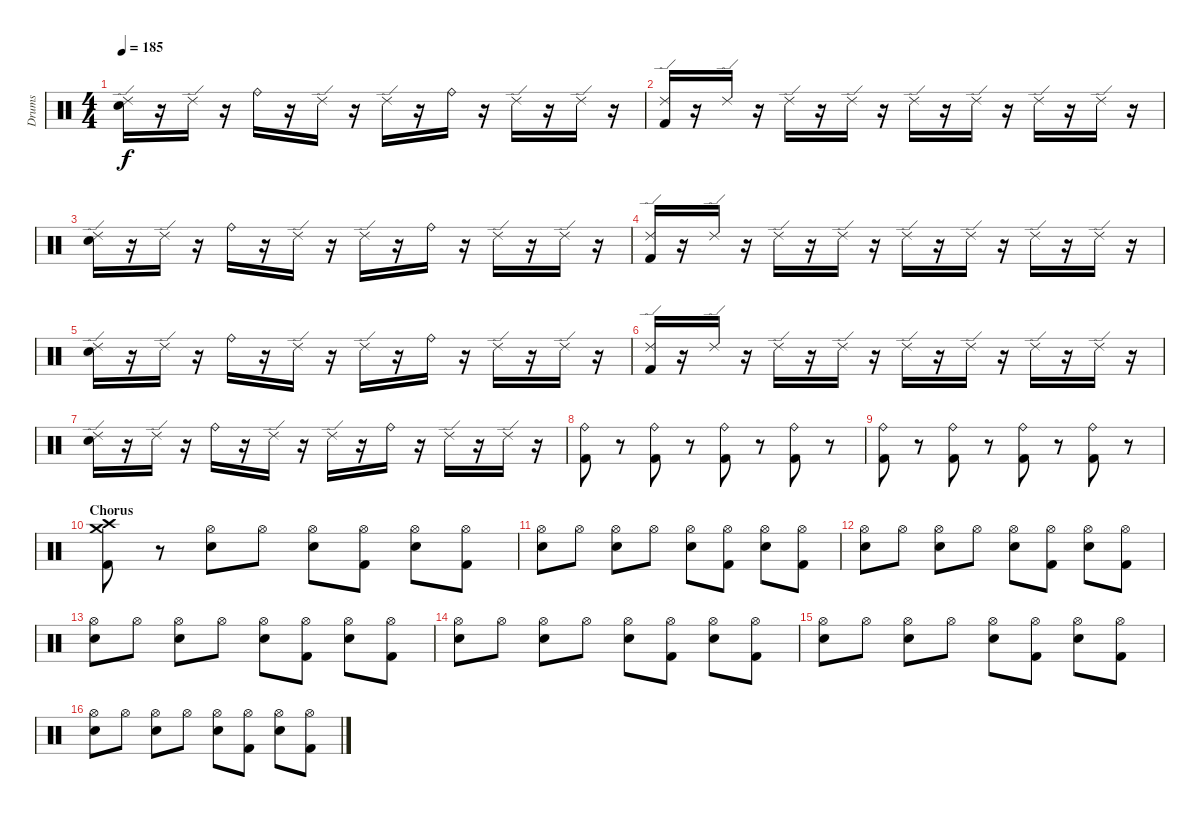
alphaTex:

\track ("Drums" "Drums") {instrument percussion}
\staff {score}
\articulation defaults
\ts (4 4)
\tempo 185
\clef neutral
\ks c
("Ride (edge) 2" "Electric Snare (hit)").16{dy f} r.16 "Ride (edge) 2".16 r.16 "Ride (bell)".16 r.16 "Ride (edge) 2".16 r.16 "Ride (edge) 2".16 r.16 "Ride (bell)".16 r.16 "Ride (edge) 2".16 r.16 "Ride (edge) 2".16 r.16 |
("Ride (edge) 2" "Kick (hit) 2").16 r.16 "Ride (edge) 2".16 r.16 "Ride (edge) 2".16 r.16 "Ride (edge) 2".16 r.16 "Ride (edge) 2".16 r.16 "Ride (edge) 2".16 r.16 "Ride (edge) 2".16 r.16 "Ride (edge) 2".16 r.16 |
("Ride (edge) 2" "Electric Snare (hit)").16 r.16 "Ride (edge) 2".16 r.16 "Ride (bell)".16 r.16 "Ride (edge) 2".16 r.16 "Ride (edge) 2".16 r.16 "Ride (bell)".16 r.16 "Ride (edge) 2".16 r.16 "Ride (edge) 2".16 r.16 |
("Ride (edge) 2" "Kick (hit) 2").16 r.16 "Ride (edge) 2".16 r.16 "Ride (edge) 2".16 r.16 "Ride (edge) 2".16 r.16 "Ride (edge) 2".16 r.16 "Ride (edge) 2".16 r.16 "Ride (edge) 2".16 r.16 "Ride (edge) 2".16 r.16 |
("Ride (edge) 2" "Electric Snare (hit)").16 r.16 "Ride (edge) 2".16 r.16 "Ride (bell)".16 r.16 "Ride (edge) 2".16 r.16 "Ride (edge) 2".16 r.16 "Ride (bell)".16 r.16 "Ride (edge) 2".16 r.16 "Ride (edge) 2".16 r.16 |
("Ride (edge) 2" "Kick (hit) 2").16 r.16 "Ride (edge) 2".16 r.16 "Ride (edge) 2".16 r.16 "Ride (edge) 2".16 r.16 "Ride (edge) 2".16 r.16 "Ride (edge) 2".16 r.16 "Ride (edge) 2".16 r.16 "Ride (edge) 2".16 r.16 |
("Ride (edge) 2" "Electric Snare (hit)").16 r.16 "Ride (edge) 2".16 r.16 "Ride (bell)".16 r.16 "Ride (edge) 2".16 r.16 "Ride (edge) 2".16 r.16 "Ride (bell)".16 r.16 "Ride (edge) 2".16 r.16 "Ride (edge) 2".16 r.16 |
("Ride (bell)" "Kick (hit) 2").8{volume 13} r.8 ("Ride (bell)" "Kick (hit) 2").8 r.8 ("Ride (bell)" "Kick (hit) 2").8 r.8 ("Ride (bell)" "Kick (hit) 2").8 r.8 |
("Ride (bell)" "Kick (hit) 2").8 r.8 ("Ride (bell)" "Kick (hit) 2").8 r.8 ("Ride (bell)" "Kick (hit) 2").8 r.8 ("Ride (bell)" "Kick (hit) 2").8 r.8 |
\section ("" "Chorus")
("Crash high (hit)" "Crash medium (hit)" "Kick (hit) 2").8 r.8 ("Hi-Hat (open)" "Electric Snare (hit)").8 "Hi-Hat (open)".8 ("Hi-Hat (open)" "Electric Snare (hit)").8 ("Hi-Hat (open)" "Kick (hit) 2").8 ("Hi-Hat (open)" "Electric Snare (hit)").8 ("Hi-Hat (open)" "Kick (hit) 2").8 |
("Hi-Hat (open)" "Electric Snare (hit)").8 "Hi-Hat (open)".8 ("Hi-Hat (open)" "Electric Snare (hit)").8 "Hi-Hat (open)".8 ("Hi-Hat (open)" "Electric Snare (hit)").8 ("Hi-Hat (open)" "Kick (hit) 2").8 ("Hi-Hat (open)" "Electric Snare (hit)").8 ("Hi-Hat (open)" "Kick (hit) 2").8 |
("Hi-Hat (open)" "Electric Snare (hit)").8 "Hi-Hat (open)".8 ("Hi-Hat (open)" "Electric Snare (hit)").8 "Hi-Hat (open)".8 ("Hi-Hat (open)" "Electric Snare (hit)").8 ("Hi-Hat (open)" "Kick (hit) 2").8 ("Hi-Hat (open)" "Electric Snare (hit)").8 ("Hi-Hat (open)" "Kick (hit) 2").8 |
("Hi-Hat (open)" "Electric Snare (hit)").8 "Hi-Hat (open)".8 ("Hi-Hat (open)" "Electric Snare (hit)").8 "Hi-Hat (open)".8 ("Hi-Hat (open)" "Electric Snare (hit)").8 ("Hi-Hat (open)" "Kick (hit) 2").8 ("Hi-Hat (open)" "Electric Snare (hit)").8 ("Hi-Hat (open)" "Kick (hit) 2").8 |
("Hi-Hat (open)" "Electric Snare (hit)").8 "Hi-Hat (open)".8 ("Hi-Hat (open)" "Electric Snare (hit)").8 "Hi-Hat (open)".8 ("Hi-Hat (open)" "Electric Snare (hit)").8 ("Hi-Hat (open)" "Kick (hit) 2").8 ("Hi-Hat (open)" "Electric Snare (hit)").8 ("Hi-Hat (open)" "Kick (hit) 2").8 |
("Hi-Hat (open)" "Electric Snare (hit)").8 "Hi-Hat (open)".8 ("Hi-Hat (open)" "Electric Snare (hit)").8 "Hi-Hat (open)".8 ("Hi-Hat (open)" "Electric Snare (hit)").8 ("Hi-Hat (open)" "Kick (hit) 2").8 ("Hi-Hat (open)" "Electric Snare (hit)").8 ("Hi-Hat (open)" "Kick (hit) 2").8 |
("Hi-Hat (open)" "Electric Snare (hit)").8 "Hi-Hat (open)".8 ("Hi-Hat (open)" "Electric Snare (hit)").8 "Hi-Hat (open)".8 ("Hi-Hat (open)" "Electric Snare (hit)").8 ("Hi-Hat (open)" "Kick (hit) 2").8 ("Hi-Hat (open)" "Electric Snare (hit)").8 ("Hi-Hat (open)" "Kick (hit) 2").8
